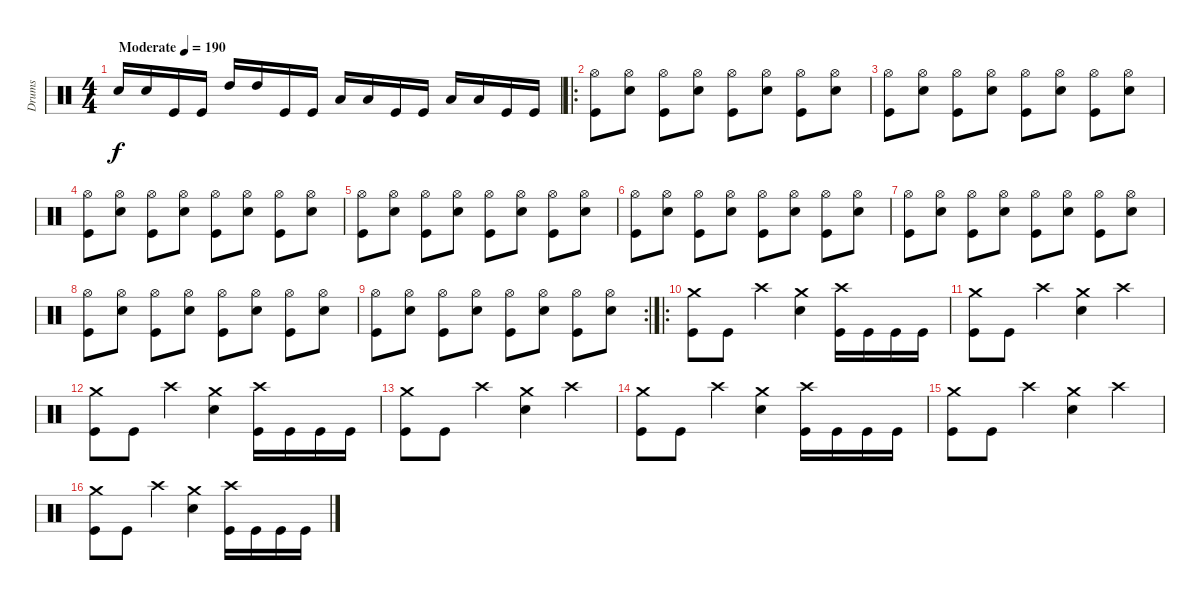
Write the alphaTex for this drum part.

\track ("Drums" "Drums") {instrument percussion}
\staff {score}
\articulation defaults
\ts (4 4)
\tempo (190 "Moderate")
\clef neutral
\ks c "Snare (hit) 2".16{dy f} "Snare (hit) 2".16 "Kick (hit)".16 "Kick (hit)".16 "High Tom (hit)".16 "High Tom (hit)".16 "Kick (hit)".16 "Kick (hit)".16 "Low Tom (hit)".16 "Low Tom (hit)".16 "Kick (hit)".16 "Kick (hit)".16 "Low Floor Tom (hit)".16 "Low Floor Tom (hit)".16 "Kick (hit)".16 "Kick (hit)".16
|
\ro
("Hi-Hat (open)" "Kick (hit)").8 ("Hi-Hat (open)" "Snare (hit) 2").8 ("Hi-Hat (open)" "Kick (hit)").8 ("Hi-Hat (open)" "Snare (hit) 2").8 ("Hi-Hat (open)" "Kick (hit)").8 ("Hi-Hat (open)" "Snare (hit) 2").8 ("Hi-Hat (open)" "Kick (hit)").8 ("Hi-Hat (open)" "Snare (hit) 2").8 |
("Hi-Hat (open)" "Kick (hit)").8 ("Hi-Hat (open)" "Snare (hit) 2").8 ("Hi-Hat (open)" "Kick (hit)").8 ("Hi-Hat (open)" "Snare (hit) 2").8 ("Hi-Hat (open)" "Kick (hit)").8 ("Hi-Hat (open)" "Snare (hit) 2").8 ("Hi-Hat (open)" "Kick (hit)").8 ("Hi-Hat (open)" "Snare (hit) 2").8 |
("Hi-Hat (open)" "Kick (hit)").8 ("Hi-Hat (open)" "Snare (hit) 2").8 ("Hi-Hat (open)" "Kick (hit)").8 ("Hi-Hat (open)" "Snare (hit) 2").8 ("Hi-Hat (open)" "Kick (hit)").8 ("Hi-Hat (open)" "Snare (hit) 2").8 ("Hi-Hat (open)" "Kick (hit)").8 ("Hi-Hat (open)" "Snare (hit) 2").8 |
("Hi-Hat (open)" "Kick (hit)").8 ("Hi-Hat (open)" "Snare (hit) 2").8 ("Hi-Hat (open)" "Kick (hit)").8 ("Hi-Hat (open)" "Snare (hit) 2").8 ("Hi-Hat (open)" "Kick (hit)").8 ("Hi-Hat (open)" "Snare (hit) 2").8 ("Hi-Hat (open)" "Kick (hit)").8 ("Hi-Hat (open)" "Snare (hit) 2").8 |
("Hi-Hat (open)" "Kick (hit)").8 ("Hi-Hat (open)" "Snare (hit) 2").8 ("Hi-Hat (open)" "Kick (hit)").8 ("Hi-Hat (open)" "Snare (hit) 2").8 ("Hi-Hat (open)" "Kick (hit)").8 ("Hi-Hat (open)" "Snare (hit) 2").8 ("Hi-Hat (open)" "Kick (hit)").8 ("Hi-Hat (open)" "Snare (hit) 2").8 |
("Hi-Hat (open)" "Kick (hit)").8 ("Hi-Hat (open)" "Snare (hit) 2").8 ("Hi-Hat (open)" "Kick (hit)").8 ("Hi-Hat (open)" "Snare (hit) 2").8 ("Hi-Hat (open)" "Kick (hit)").8 ("Hi-Hat (open)" "Snare (hit) 2").8 ("Hi-Hat (open)" "Kick (hit)").8 ("Hi-Hat (open)" "Snare (hit) 2").8 |
("Hi-Hat (open)" "Kick (hit)").8 ("Hi-Hat (open)" "Snare (hit) 2").8 ("Hi-Hat (open)" "Kick (hit)").8 ("Hi-Hat (open)" "Snare (hit) 2").8 ("Hi-Hat (open)" "Kick (hit)").8 ("Hi-Hat (open)" "Snare (hit) 2").8 ("Hi-Hat (open)" "Kick (hit)").8 ("Hi-Hat (open)" "Snare (hit) 2").8 |
\rc 2
("Hi-Hat (open)" "Kick (hit)").8 ("Hi-Hat (open)" "Snare (hit) 2").8 ("Hi-Hat (open)" "Kick (hit)").8 ("Hi-Hat (open)" "Snare (hit) 2").8 ("Hi-Hat (open)" "Kick (hit)").8 ("Hi-Hat (open)" "Snare (hit) 2").8 ("Hi-Hat (open)" "Kick (hit)").8 ("Hi-Hat (open)" "Snare (hit) 2").8 |
\ro
("Crash medium (hit)" "Kick (hit)").8 "Kick (hit)".8 "Crash high (hit)".4 ("Crash medium (hit)" "Snare (hit) 2").4 ("Crash high (hit)" "Kick (hit)").16 "Kick (hit)".16 "Kick (hit)".16 "Kick (hit)".16 |
("Crash medium (hit)" "Kick (hit)").8 "Kick (hit)".8 "Crash high (hit)".4 ("Crash medium (hit)" "Snare (hit) 2").4 "Crash high (hit)".4 |
("Crash medium (hit)" "Kick (hit)").8 "Kick (hit)".8 "Crash high (hit)".4 ("Crash medium (hit)" "Snare (hit) 2").4 ("Crash high (hit)" "Kick (hit)").16 "Kick (hit)".16 "Kick (hit)".16 "Kick (hit)".16 |
("Crash medium (hit)" "Kick (hit)").8 "Kick (hit)".8 "Crash high (hit)".4 ("Crash medium (hit)" "Snare (hit) 2").4 "Crash high (hit)".4 |
("Crash medium (hit)" "Kick (hit)").8 "Kick (hit)".8 "Crash high (hit)".4 ("Crash medium (hit)" "Snare (hit) 2").4 ("Crash high (hit)" "Kick (hit)").16 "Kick (hit)".16 "Kick (hit)".16 "Kick (hit)".16 |
("Crash medium (hit)" "Kick (hit)").8 "Kick (hit)".8 "Crash high (hit)".4 ("Crash medium (hit)" "Snare (hit) 2").4 "Crash high (hit)".4 |
("Crash medium (hit)" "Kick (hit)").8 "Kick (hit)".8 "Crash high (hit)".4 ("Crash medium (hit)" "Snare (hit) 2").4 ("Crash high (hit)" "Kick (hit)").16 "Kick (hit)".16 "Kick (hit)".16 "Kick (hit)".16
